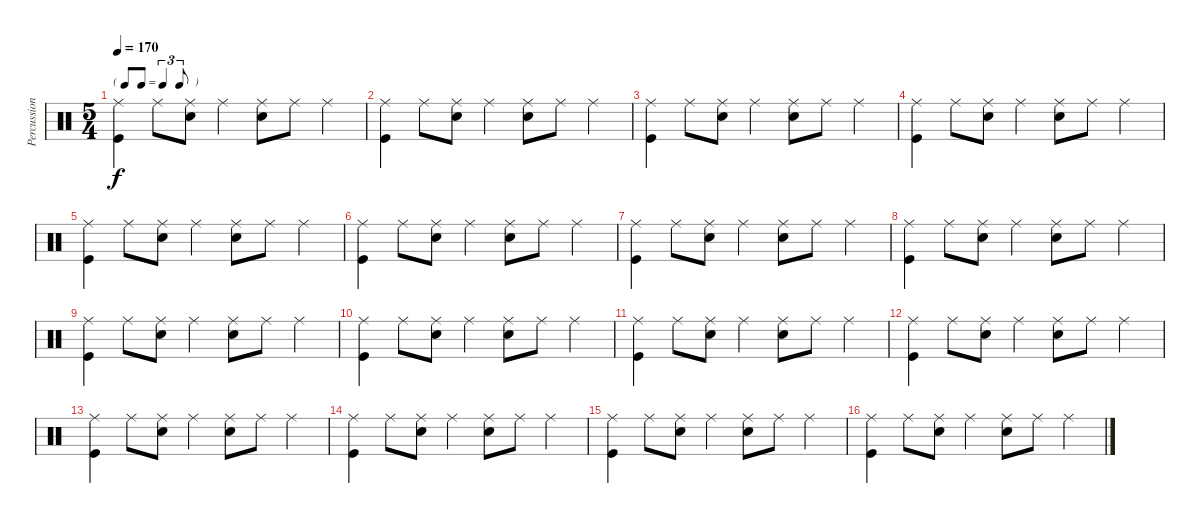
\track ("Percussions" "Percussion") {instrument percussion}
\staff {score}
\articulation defaults
\ts (5 4)
\tf triplet8th
\tempo 170
\clef neutral
\ks c
("Ride (middle)" "Kick (hit)").4{dy f} "Ride (middle)".8 ("Ride (middle)" "Snare (hit) 2").8 "Ride (middle)".4 ("Ride (middle)" "Snare (hit) 2").8 "Ride (middle)".8 "Ride (middle)".4 |
("Ride (middle)" "Kick (hit)").4 "Ride (middle)".8 ("Ride (middle)" "Snare (hit) 2").8 "Ride (middle)".4 ("Ride (middle)" "Snare (hit) 2").8 "Ride (middle)".8 "Ride (middle)".4 |
("Ride (middle)" "Kick (hit)").4 "Ride (middle)".8 ("Ride (middle)" "Snare (hit) 2").8 "Ride (middle)".4 ("Ride (middle)" "Snare (hit) 2").8 "Ride (middle)".8 "Ride (middle)".4 |
("Ride (middle)" "Kick (hit)").4 "Ride (middle)".8 ("Ride (middle)" "Snare (hit) 2").8 "Ride (middle)".4 ("Ride (middle)" "Snare (hit) 2").8 "Ride (middle)".8 "Ride (middle)".4 |
("Ride (middle)" "Kick (hit)").4 "Ride (middle)".8 ("Ride (middle)" "Snare (hit) 2").8 "Ride (middle)".4 ("Ride (middle)" "Snare (hit) 2").8 "Ride (middle)".8 "Ride (middle)".4 |
("Ride (middle)" "Kick (hit)").4 "Ride (middle)".8 ("Ride (middle)" "Snare (hit) 2").8 "Ride (middle)".4 ("Ride (middle)" "Snare (hit) 2").8 "Ride (middle)".8 "Ride (middle)".4 |
("Ride (middle)" "Kick (hit)").4 "Ride (middle)".8 ("Ride (middle)" "Snare (hit) 2").8 "Ride (middle)".4 ("Ride (middle)" "Snare (hit) 2").8 "Ride (middle)".8 "Ride (middle)".4 |
("Ride (middle)" "Kick (hit)").4 "Ride (middle)".8 ("Ride (middle)" "Snare (hit) 2").8 "Ride (middle)".4 ("Ride (middle)" "Snare (hit) 2").8 "Ride (middle)".8 "Ride (middle)".4 |
("Ride (middle)" "Kick (hit)").4 "Ride (middle)".8 ("Ride (middle)" "Snare (hit) 2").8 "Ride (middle)".4 ("Ride (middle)" "Snare (hit) 2").8 "Ride (middle)".8 "Ride (middle)".4 |
("Ride (middle)" "Kick (hit)").4 "Ride (middle)".8 ("Ride (middle)" "Snare (hit) 2").8 "Ride (middle)".4 ("Ride (middle)" "Snare (hit) 2").8 "Ride (middle)".8 "Ride (middle)".4 |
("Ride (middle)" "Kick (hit)").4 "Ride (middle)".8 ("Ride (middle)" "Snare (hit) 2").8 "Ride (middle)".4 ("Ride (middle)" "Snare (hit) 2").8 "Ride (middle)".8 "Ride (middle)".4 |
("Ride (middle)" "Kick (hit)").4 "Ride (middle)".8 ("Ride (middle)" "Snare (hit) 2").8 "Ride (middle)".4 ("Ride (middle)" "Snare (hit) 2").8 "Ride (middle)".8 "Ride (middle)".4 |
("Ride (middle)" "Kick (hit)").4 "Ride (middle)".8 ("Ride (middle)" "Snare (hit) 2").8 "Ride (middle)".4 ("Ride (middle)" "Snare (hit) 2").8 "Ride (middle)".8 "Ride (middle)".4 |
("Ride (middle)" "Kick (hit)").4 "Ride (middle)".8 ("Ride (middle)" "Snare (hit) 2").8 "Ride (middle)".4 ("Ride (middle)" "Snare (hit) 2").8 "Ride (middle)".8 "Ride (middle)".4 |
("Ride (middle)" "Kick (hit)").4 "Ride (middle)".8 ("Ride (middle)" "Snare (hit) 2").8 "Ride (middle)".4 ("Ride (middle)" "Snare (hit) 2").8 "Ride (middle)".8 "Ride (middle)".4 |
("Ride (middle)" "Kick (hit)").4 "Ride (middle)".8 ("Ride (middle)" "Snare (hit) 2").8 "Ride (middle)".4 ("Ride (middle)" "Snare (hit) 2").8 "Ride (middle)".8 "Ride (middle)".4
